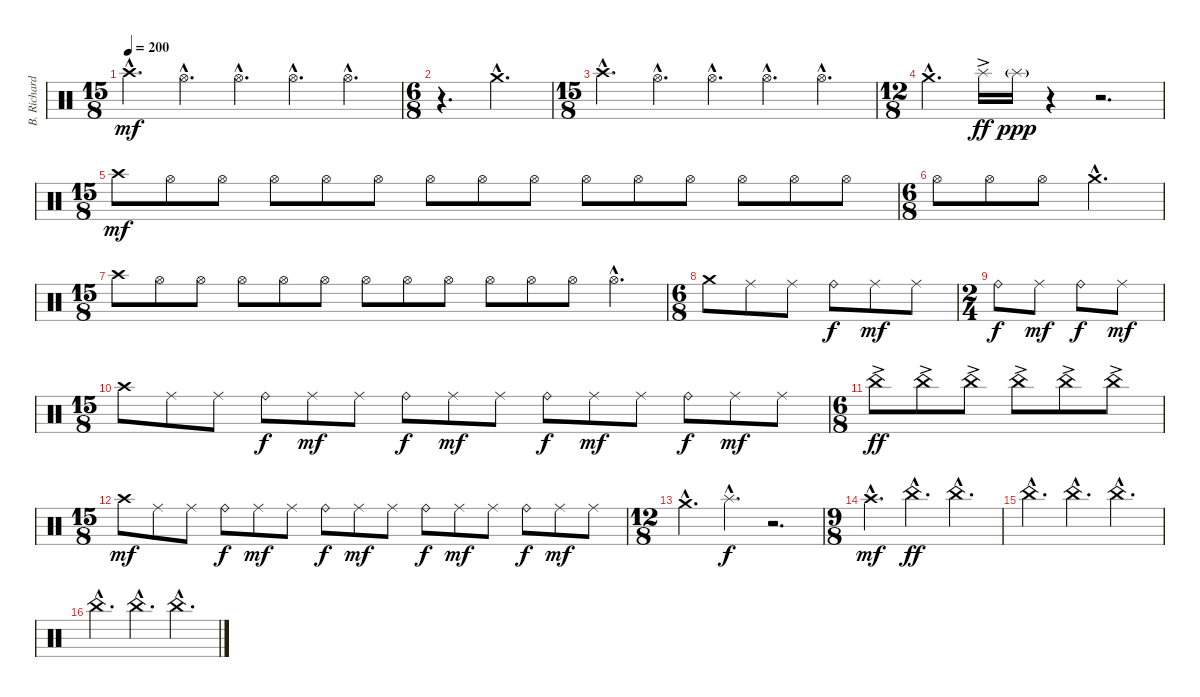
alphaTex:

\track ("B. Richardson Drums" "B. Richard") {instrument percussion}
\staff {score}
\articulation defaults
\ts (15 8)
\tempo 200
\clef neutral
\ks c "Crash high (hit)"{hac}.4{d dy mf} "Hi-Hat (open)"{hac}.4{d} "Hi-Hat (open)"{hac}.4{d} "Hi-Hat (open)"{hac}.4{d} "Hi-Hat (open)"{hac}.4{d}
|
\ts (6 8)
r.4{d} "Crash medium (hit)"{hac}.4{d} |
\ts (15 8)
"Crash high (hit)"{hac}.4{d} "Hi-Hat (open)"{hac}.4{d} "Hi-Hat (open)"{hac}.4{d} "Hi-Hat (open)"{hac}.4{d} "Hi-Hat (open)"{hac}.4{d} |
\ts (12 8)
"Crash medium (hit)"{hac}.4{d} "Splash (hit)"{ac}.16{dy ff} "Splash (hit)"{g}.16{dy ppp} r.4 r.2{d} |
\ts (15 8)
"Crash high (hit)".8{dy mf} "Hi-Hat (open)".8 "Hi-Hat (open)".8 "Hi-Hat (open)".8 "Hi-Hat (open)".8 "Hi-Hat (open)".8 "Hi-Hat (open)".8 "Hi-Hat (open)".8 "Hi-Hat (open)".8 "Hi-Hat (open)".8 "Hi-Hat (open)".8 "Hi-Hat (open)".8 "Hi-Hat (open)".8 "Hi-Hat (open)".8 "Hi-Hat (open)".8 |
\ts (6 8)
"Hi-Hat (open)".8 "Hi-Hat (open)".8 "Hi-Hat (open)".8 "Crash medium (hit)"{hac}.4{d} |
\ts (15 8)
"Crash high (hit)".8 "Hi-Hat (open)".8 "Hi-Hat (open)".8 "Hi-Hat (open)".8 "Hi-Hat (open)".8 "Hi-Hat (open)".8 "Hi-Hat (open)".8 "Hi-Hat (open)".8 "Hi-Hat (open)".8 "Hi-Hat (open)".8 "Hi-Hat (open)".8 "Hi-Hat (open)".8 "Hi-Hat (open)"{hac}.4{d} |
\ts (6 8)
"Crash medium (hit)".8 "Ride (middle)".8 "Ride (middle)".8 "Ride (bell)".8{dy f} "Ride (middle)".8{dy mf} "Ride (middle)".8 |
\ts (2 4)
"Ride (bell)".8{dy f} "Ride (middle)".8{dy mf} "Ride (bell)".8{dy f} "Ride (middle)".8{dy mf} |
\ts (15 8)
"Crash high (hit)".8 "Ride (middle)".8 "Ride (middle)".8 "Ride (bell)".8{dy f} "Ride (middle)".8{dy mf} "Ride (middle)".8 "Ride (bell)".8{dy f} "Ride (middle)".8{dy mf} "Ride (middle)".8 "Ride (bell)".8{dy f} "Ride (middle)".8{dy mf} "Ride (middle)".8 "Ride (bell)".8{dy f} "Ride (middle)".8{dy mf} "Ride (middle)".8 |
\ts (6 8)
"China (hit)"{ac}.8{dy ff} "China (hit)"{ac}.8 "China (hit)"{ac}.8 "China (hit)"{ac}.8 "China (hit)"{ac}.8 "China (hit)"{ac}.8 |
\ts (15 8)
"Crash high (hit)".8{dy mf} "Ride (middle)".8 "Ride (middle)".8 "Ride (bell)".8{dy f} "Ride (middle)".8{dy mf} "Ride (middle)".8 "Ride (bell)".8{dy f} "Ride (middle)".8{dy mf} "Ride (middle)".8 "Ride (bell)".8{dy f} "Ride (middle)".8{dy mf} "Ride (middle)".8 "Ride (bell)".8{dy f} "Ride (middle)".8{dy mf} "Ride (middle)".8 |
\ts (12 8)
"Crash medium (hit)"{hac}.4{d} "Splash (hit)"{hac}.4{d dy f} r.2{d} |
\ts (9 8)
"Crash high (hit)"{hac}.4{d dy mf} "China (hit)"{hac}.4{d dy ff} "China (hit)"{hac}.4{d} |
"China (hit)"{hac}.4{d} "China (hit)"{hac}.4{d} "China (hit)"{hac}.4{d} |
"China (hit)"{hac}.4{d} "China (hit)"{hac}.4{d} "China (hit)"{hac}.4{d}
